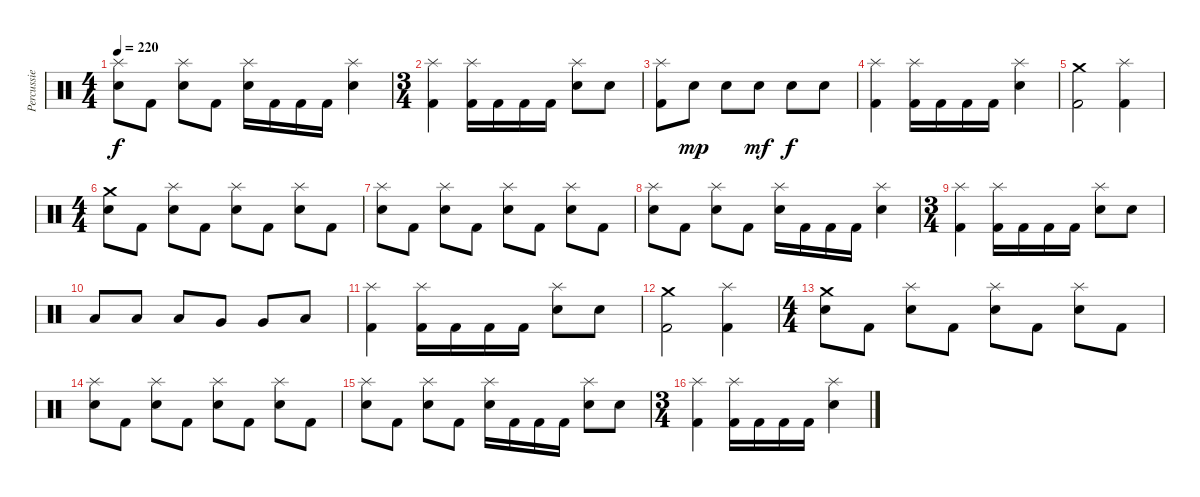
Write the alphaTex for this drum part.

\track ("Percussie" "Percussie") {instrument percussion}
\staff {score}
\articulation defaults
\ts (4 4)
\tempo 220
\clef neutral
\ks c
("Splash (hit)" "Electric Snare (hit)").8{dy f} "Kick (hit) 2".8 ("Splash (hit)" "Electric Snare (hit)").8 "Kick (hit) 2".8 ("Splash (hit)" "Electric Snare (hit)").16 "Kick (hit) 2".16 "Kick (hit) 2".16 "Kick (hit) 2".16 ("Splash (hit)" "Electric Snare (hit)").4 |
\ts (3 4)
("Splash (hit)" "Kick (hit) 2").4 ("Splash (hit)" "Kick (hit) 2").16 "Kick (hit) 2".16 "Kick (hit) 2".16 "Kick (hit) 2".16 ("Splash (hit)" "Electric Snare (hit)").8 "Electric Snare (hit)".8 |
("Splash (hit)" "Kick (hit) 2").8 "Electric Snare (hit)".8{dy mp} "Electric Snare (hit)".8 "Electric Snare (hit)".8{dy mf} "Electric Snare (hit)".8{dy f} "Electric Snare (hit)".8 |
("Splash (hit)" "Kick (hit) 2").4 ("Splash (hit)" "Kick (hit) 2").16 "Kick (hit) 2".16 "Kick (hit) 2".16 "Kick (hit) 2".16 ("Splash (hit)" "Electric Snare (hit)").4 |
("Crash medium (hit)" "Kick (hit) 2").2 ("Splash (hit)" "Kick (hit) 2").4 |
\ts (4 4)
("Crash medium (hit)" "Electric Snare (hit)").8 "Kick (hit) 2".8 ("Splash (hit)" "Electric Snare (hit)").8 "Kick (hit) 2".8 ("Splash (hit)" "Electric Snare (hit)").8 "Kick (hit) 2".8 ("Splash (hit)" "Electric Snare (hit)").8 "Kick (hit) 2".8 |
("Splash (hit)" "Electric Snare (hit)").8 "Kick (hit) 2".8 ("Splash (hit)" "Electric Snare (hit)").8 "Kick (hit) 2".8 ("Splash (hit)" "Electric Snare (hit)").8 "Kick (hit) 2".8 ("Splash (hit)" "Electric Snare (hit)").8 "Kick (hit) 2".8 |
("Splash (hit)" "Electric Snare (hit)").8 "Kick (hit) 2".8 ("Splash (hit)" "Electric Snare (hit)").8 "Kick (hit) 2".8 ("Splash (hit)" "Electric Snare (hit)").16 "Kick (hit) 2".16 "Kick (hit) 2".16 "Kick (hit) 2".16 ("Splash (hit)" "Electric Snare (hit)").4 |
\ts (3 4)
("Splash (hit)" "Kick (hit) 2").4 ("Splash (hit)" "Kick (hit) 2").16 "Kick (hit) 2".16 "Kick (hit) 2".16 "Kick (hit) 2".16 ("Splash (hit)" "Electric Snare (hit)").8 "Electric Snare (hit)".8 |
"Low Tom (hit)".8 "Low Tom (hit)".8 "Low Tom (hit)".8 "Very Low Tom (hit)".8 "Very Low Tom (hit)".8 "Low Floor Tom (hit)".8 |
("Splash (hit)" "Kick (hit) 2").4 ("Splash (hit)" "Kick (hit) 2").16 "Kick (hit) 2".16 "Kick (hit) 2".16 "Kick (hit) 2".16 ("Splash (hit)" "Electric Snare (hit)").8 "Electric Snare (hit)".8 |
("Crash medium (hit)" "Kick (hit) 2").2 ("Splash (hit)" "Kick (hit) 2").4 |
\ts (4 4)
("Crash medium (hit)" "Electric Snare (hit)").8 "Kick (hit) 2".8 ("Splash (hit)" "Electric Snare (hit)").8 "Kick (hit) 2".8 ("Splash (hit)" "Electric Snare (hit)").8 "Kick (hit) 2".8 ("Splash (hit)" "Electric Snare (hit)").8 "Kick (hit) 2".8 |
("Splash (hit)" "Electric Snare (hit)").8 "Kick (hit) 2".8 ("Splash (hit)" "Electric Snare (hit)").8 "Kick (hit) 2".8 ("Splash (hit)" "Electric Snare (hit)").8 "Kick (hit) 2".8 ("Splash (hit)" "Electric Snare (hit)").8 "Kick (hit) 2".8 |
("Splash (hit)" "Electric Snare (hit)").8 "Kick (hit) 2".8 ("Splash (hit)" "Electric Snare (hit)").8 "Kick (hit) 2".8 ("Splash (hit)" "Electric Snare (hit)").16 "Kick (hit) 2".16 "Kick (hit) 2".16 "Kick (hit) 2".16 ("Splash (hit)" "Electric Snare (hit)").8 "Electric Snare (hit)".8 |
\ts (3 4)
("Splash (hit)" "Kick (hit) 2").4 ("Splash (hit)" "Kick (hit) 2").16 "Kick (hit) 2".16 "Kick (hit) 2".16 "Kick (hit) 2".16 ("Splash (hit)" "Electric Snare (hit)").4
